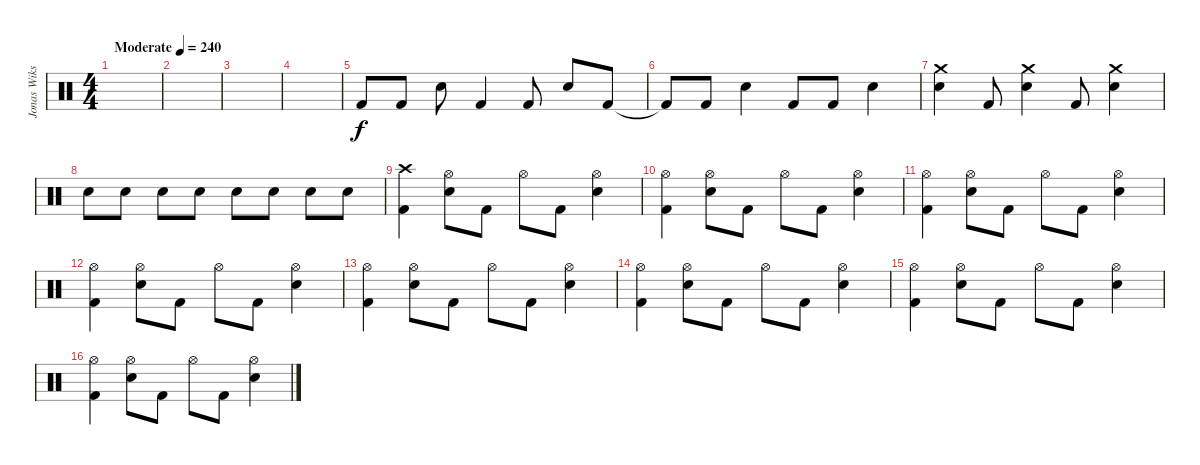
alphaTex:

\track ("Jonas Wikstrand" "Jonas Wiks") {instrument percussion}
\staff {score}
\articulation defaults
\ts (4 4)
\tempo (240 "Moderate")
\clef neutral
\ks c
|
|
|
|
"Kick (hit) 2".8 "Kick (hit) 2".8 "Snare (hit) 2".8 "Kick (hit) 2".4 "Kick (hit) 2".8 "Snare (hit) 2".8 "Kick (hit) 2".8 |
"Kick (hit) 2"{t}.8 "Kick (hit) 2".8 "Snare (hit) 2".4 "Kick (hit) 2".8 "Kick (hit) 2".8 "Snare (hit) 2".4 |
("Crash medium (hit)" "Snare (hit) 2").4 "Kick (hit) 2".8 ("Crash medium (hit)" "Snare (hit) 2").4 "Kick (hit) 2".8 ("Crash medium (hit)" "Snare (hit) 2").4 |
"Snare (hit) 2".8 "Snare (hit) 2".8 "Snare (hit) 2".8 "Snare (hit) 2".8 "Snare (hit) 2".8 "Snare (hit) 2".8 "Snare (hit) 2".8 "Snare (hit) 2".8 |
("Crash high (hit)" "Kick (hit) 2").4 ("Hi-Hat (open)" "Snare (hit) 2").8 "Kick (hit) 2".8 "Hi-Hat (open)".8 "Kick (hit) 2".8 ("Hi-Hat (open)" "Snare (hit) 2").4 |
("Hi-Hat (open)" "Kick (hit) 2").4 ("Hi-Hat (open)" "Snare (hit) 2").8 "Kick (hit) 2".8 "Hi-Hat (open)".8 "Kick (hit) 2".8 ("Hi-Hat (open)" "Snare (hit) 2").4 |
("Hi-Hat (open)" "Kick (hit) 2").4 ("Hi-Hat (open)" "Snare (hit) 2").8 "Kick (hit) 2".8 "Hi-Hat (open)".8 "Kick (hit) 2".8 ("Hi-Hat (open)" "Snare (hit) 2").4 |
("Hi-Hat (open)" "Kick (hit) 2").4 ("Hi-Hat (open)" "Snare (hit) 2").8 "Kick (hit) 2".8 "Hi-Hat (open)".8 "Kick (hit) 2".8 ("Hi-Hat (open)" "Snare (hit) 2").4 |
("Hi-Hat (open)" "Kick (hit) 2").4 ("Hi-Hat (open)" "Snare (hit) 2").8 "Kick (hit) 2".8 "Hi-Hat (open)".8 "Kick (hit) 2".8 ("Hi-Hat (open)" "Snare (hit) 2").4 |
("Hi-Hat (open)" "Kick (hit) 2").4 ("Hi-Hat (open)" "Snare (hit) 2").8 "Kick (hit) 2".8 "Hi-Hat (open)".8 "Kick (hit) 2".8 ("Hi-Hat (open)" "Snare (hit) 2").4 |
("Hi-Hat (open)" "Kick (hit) 2").4 ("Hi-Hat (open)" "Snare (hit) 2").8 "Kick (hit) 2".8 "Hi-Hat (open)".8 "Kick (hit) 2".8 ("Hi-Hat (open)" "Snare (hit) 2").4 |
("Hi-Hat (open)" "Kick (hit) 2").4 ("Hi-Hat (open)" "Snare (hit) 2").8 "Kick (hit) 2".8 "Hi-Hat (open)".8 "Kick (hit) 2".8 ("Hi-Hat (open)" "Snare (hit) 2").4
